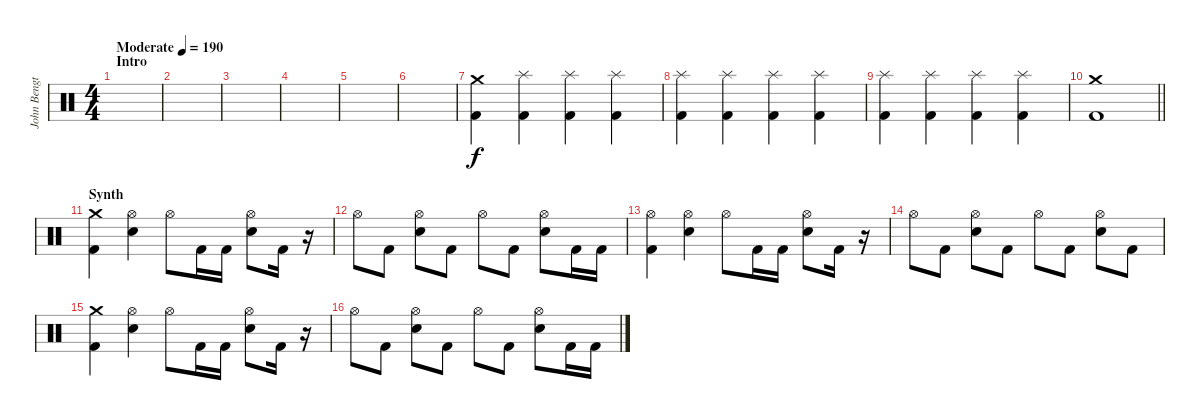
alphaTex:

\track ("John Bengtsson" "John Bengt") {instrument percussion}
\staff {score}
\articulation defaults
\ts (4 4)
\section ("" "Intro")
\tempo (190 "Moderate")
\clef neutral
\ks c
|
|
|
|
|
|
("Crash medium (hit)" "Kick (hit) 2").4 ("Splash (hit)" "Kick (hit) 2").4 ("Splash (hit)" "Kick (hit) 2").4 ("Splash (hit)" "Kick (hit) 2").4 |
("Splash (hit)" "Kick (hit) 2").4 ("Splash (hit)" "Kick (hit) 2").4 ("Splash (hit)" "Kick (hit) 2").4 ("Splash (hit)" "Kick (hit) 2").4 |
("Splash (hit)" "Kick (hit) 2").4 ("Splash (hit)" "Kick (hit) 2").4 ("Splash (hit)" "Kick (hit) 2").4 ("Splash (hit)" "Kick (hit) 2").4 |
\barLineRight lightlight
("Crash medium (hit)" "Kick (hit) 2").1 |
\section ("" "Synth")
("Crash medium (hit)" "Kick (hit) 2").4 ("Hi-Hat (open)" "Electric Snare (hit)").4 "Hi-Hat (open)".8 "Kick (hit) 2".16 "Kick (hit) 2".16 ("Hi-Hat (open)" "Electric Snare (hit)").8 "Kick (hit) 2".16 r.16 |
"Hi-Hat (open)".8 "Kick (hit) 2".8 ("Hi-Hat (open)" "Electric Snare (hit)").8 "Kick (hit) 2".8 "Hi-Hat (open)".8 "Kick (hit) 2".8 ("Hi-Hat (open)" "Electric Snare (hit)").8 "Kick (hit) 2".16 "Kick (hit) 2".16 |
("Hi-Hat (open)" "Kick (hit) 2").4 ("Hi-Hat (open)" "Electric Snare (hit)").4 "Hi-Hat (open)".8 "Kick (hit) 2".16 "Kick (hit) 2".16 ("Hi-Hat (open)" "Electric Snare (hit)").8 "Kick (hit) 2".16 r.16 |
"Hi-Hat (open)".8 "Kick (hit) 2".8 ("Hi-Hat (open)" "Electric Snare (hit)").8 "Kick (hit) 2".8 "Hi-Hat (open)".8 "Kick (hit) 2".8 ("Hi-Hat (open)" "Electric Snare (hit)").8 "Kick (hit) 2".8 |
("Crash medium (hit)" "Kick (hit) 2").4 ("Hi-Hat (open)" "Electric Snare (hit)").4 "Hi-Hat (open)".8 "Kick (hit) 2".16 "Kick (hit) 2".16 ("Hi-Hat (open)" "Electric Snare (hit)").8 "Kick (hit) 2".16 r.16 |
"Hi-Hat (open)".8 "Kick (hit) 2".8 ("Hi-Hat (open)" "Electric Snare (hit)").8 "Kick (hit) 2".8 "Hi-Hat (open)".8 "Kick (hit) 2".8 ("Hi-Hat (open)" "Electric Snare (hit)").8 "Kick (hit) 2".16 "Kick (hit) 2".16
